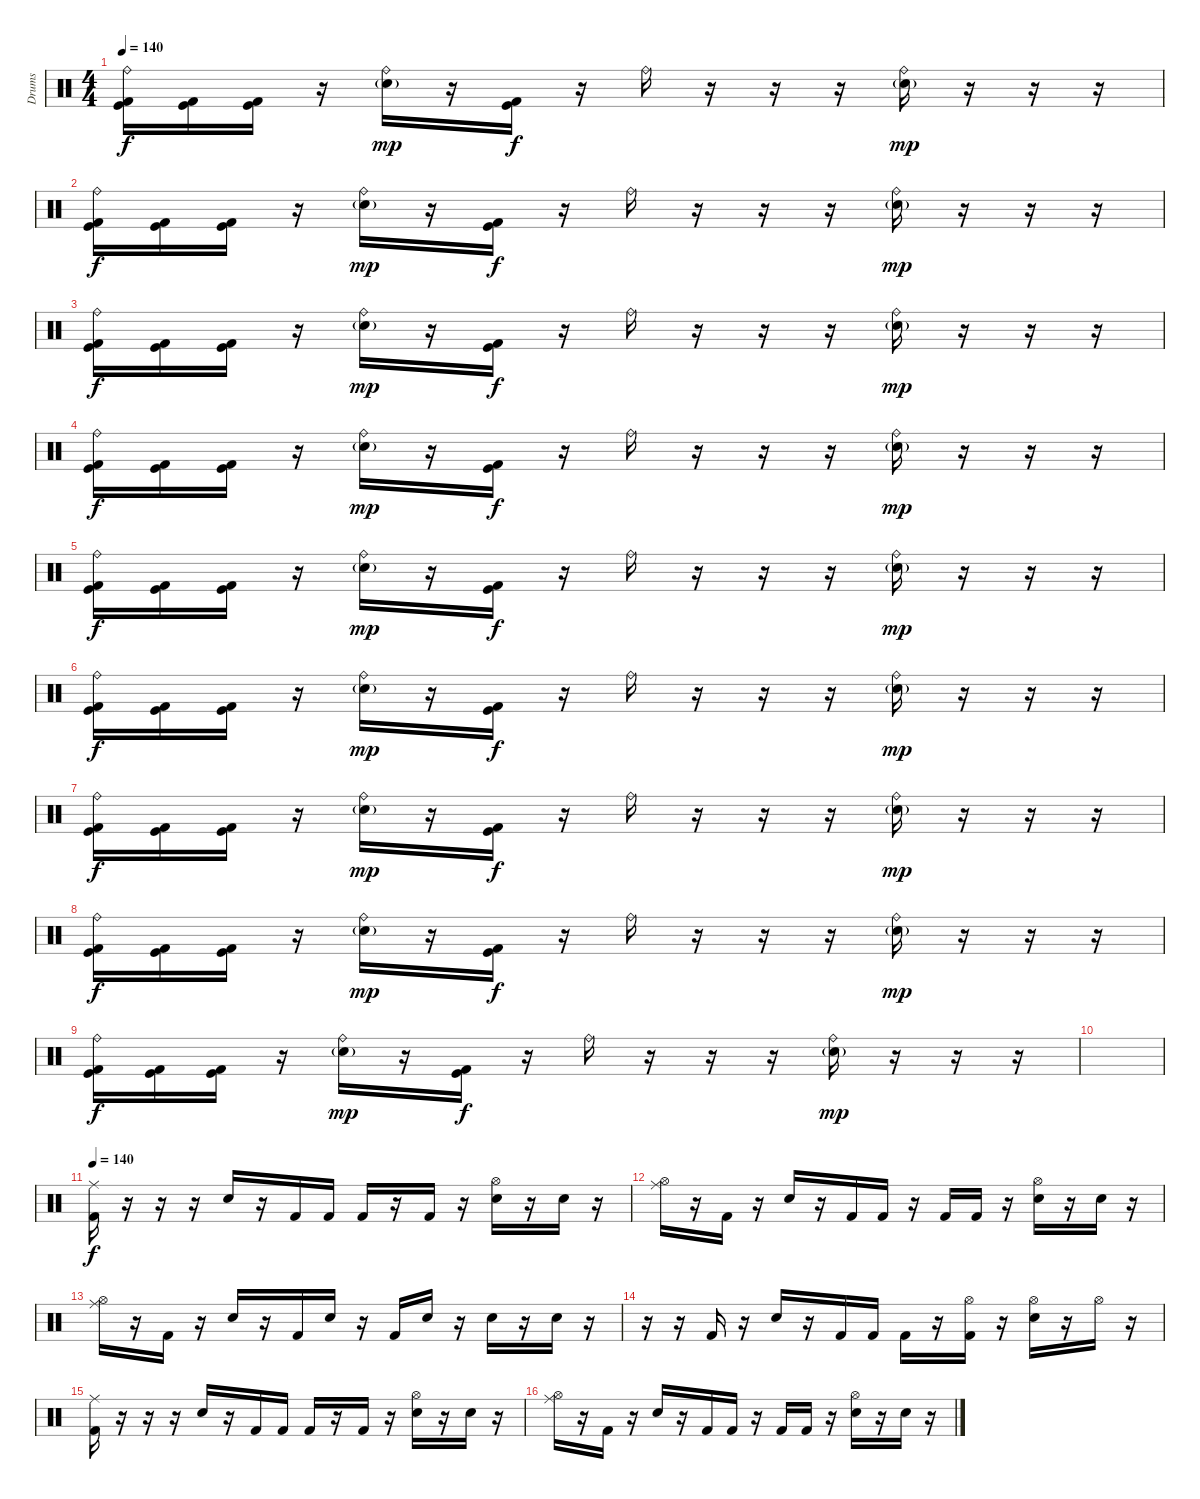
\track ("Drums" "Drums") {instrument percussion}
\staff {score}
\articulation defaults
\ts (4 4)
\tempo 140
\clef neutral
\ks c
("Ride (bell)" "Kick (hit)" "Kick (hit) 2").16{dy f} ("Kick (hit)" "Kick (hit) 2").16 ("Kick (hit)" "Kick (hit) 2").16 r.16 ("Ride (bell)" "Electric Snare (hit)"{g}).16{dy mp} r.16 ("Kick (hit)" "Kick (hit) 2").16{dy f} r.16 "Ride (bell)".16 r.16 r.16 r.16 ("Ride (bell)" "Electric Snare (hit)"{g}).16{dy mp} r.16 r.16 r.16 |
("Ride (bell)" "Kick (hit)" "Kick (hit) 2").16{dy f} ("Kick (hit)" "Kick (hit) 2").16 ("Kick (hit)" "Kick (hit) 2").16 r.16 ("Ride (bell)" "Electric Snare (hit)"{g}).16{dy mp} r.16 ("Kick (hit)" "Kick (hit) 2").16{dy f} r.16 "Ride (bell)".16 r.16 r.16 r.16 ("Ride (bell)" "Electric Snare (hit)"{g}).16{dy mp} r.16 r.16 r.16 |
("Ride (bell)" "Kick (hit)" "Kick (hit) 2").16{dy f} ("Kick (hit)" "Kick (hit) 2").16 ("Kick (hit)" "Kick (hit) 2").16 r.16 ("Ride (bell)" "Electric Snare (hit)"{g}).16{dy mp} r.16 ("Kick (hit)" "Kick (hit) 2").16{dy f} r.16 "Ride (bell)".16 r.16 r.16 r.16 ("Ride (bell)" "Electric Snare (hit)"{g}).16{dy mp} r.16 r.16 r.16 |
("Ride (bell)" "Kick (hit)" "Kick (hit) 2").16{dy f} ("Kick (hit)" "Kick (hit) 2").16 ("Kick (hit)" "Kick (hit) 2").16 r.16 ("Ride (bell)" "Electric Snare (hit)"{g}).16{dy mp} r.16 ("Kick (hit)" "Kick (hit) 2").16{dy f} r.16 "Ride (bell)".16 r.16 r.16 r.16 ("Ride (bell)" "Electric Snare (hit)"{g}).16{dy mp} r.16 r.16 r.16 |
("Ride (bell)" "Kick (hit)" "Kick (hit) 2").16{dy f} ("Kick (hit)" "Kick (hit) 2").16 ("Kick (hit)" "Kick (hit) 2").16 r.16 ("Ride (bell)" "Electric Snare (hit)"{g}).16{dy mp} r.16 ("Kick (hit)" "Kick (hit) 2").16{dy f} r.16 "Ride (bell)".16 r.16 r.16 r.16 ("Ride (bell)" "Electric Snare (hit)"{g}).16{dy mp} r.16 r.16 r.16 |
("Ride (bell)" "Kick (hit)" "Kick (hit) 2").16{dy f} ("Kick (hit)" "Kick (hit) 2").16 ("Kick (hit)" "Kick (hit) 2").16 r.16 ("Ride (bell)" "Electric Snare (hit)"{g}).16{dy mp} r.16 ("Kick (hit)" "Kick (hit) 2").16{dy f} r.16 "Ride (bell)".16 r.16 r.16 r.16 ("Ride (bell)" "Electric Snare (hit)"{g}).16{dy mp} r.16 r.16 r.16 |
("Ride (bell)" "Kick (hit)" "Kick (hit) 2").16{dy f} ("Kick (hit)" "Kick (hit) 2").16 ("Kick (hit)" "Kick (hit) 2").16 r.16 ("Ride (bell)" "Electric Snare (hit)"{g}).16{dy mp} r.16 ("Kick (hit)" "Kick (hit) 2").16{dy f} r.16 "Ride (bell)".16 r.16 r.16 r.16 ("Ride (bell)" "Electric Snare (hit)"{g}).16{dy mp} r.16 r.16 r.16 |
("Ride (bell)" "Kick (hit)" "Kick (hit) 2").16{dy f} ("Kick (hit)" "Kick (hit) 2").16 ("Kick (hit)" "Kick (hit) 2").16 r.16 ("Ride (bell)" "Electric Snare (hit)"{g}).16{dy mp} r.16 ("Kick (hit)" "Kick (hit) 2").16{dy f} r.16 "Ride (bell)".16 r.16 r.16 r.16 ("Ride (bell)" "Electric Snare (hit)"{g}).16{dy mp} r.16 r.16 r.16 |
("Ride (bell)" "Kick (hit)" "Kick (hit) 2").16{dy f} ("Kick (hit)" "Kick (hit) 2").16 ("Kick (hit)" "Kick (hit) 2").16 r.16 ("Ride (bell)" "Electric Snare (hit)"{g}).16{dy mp} r.16 ("Kick (hit)" "Kick (hit) 2").16{dy f} r.16 "Ride (bell)".16 r.16 r.16 r.16 ("Ride (bell)" "Electric Snare (hit)"{g}).16{dy mp} r.16 r.16 r.16 |
|
\tempo 140
("Ride (middle)" "Kick (hit) 2").16{dy f} r.16 r.16 r.16 "Electric Snare (hit)".16 r.16 "Kick (hit) 2".16 "Kick (hit) 2".16 "Kick (hit) 2".16 r.16 "Kick (hit) 2".16 r.16 ("Hi-Hat (open)" "Electric Snare (hit)").16 r.16 "Electric Snare (hit)".16 r.16 |
("Ride (middle)" "Hi-Hat (open)").16 r.16 "Kick (hit) 2".16 r.16 "Electric Snare (hit)".16 r.16 "Kick (hit) 2".16 "Kick (hit) 2".16 r.16 "Kick (hit) 2".16 "Kick (hit) 2".16 r.16 ("Hi-Hat (open)" "Electric Snare (hit)").16 r.16 "Electric Snare (hit)".16 r.16 |
("Ride (middle)" "Hi-Hat (open)").16 r.16 "Kick (hit) 2".16 r.16 "Electric Snare (hit)".16 r.16 "Kick (hit) 2".16 "Electric Snare (hit)".16 r.16 "Kick (hit) 2".16 "Electric Snare (hit)".16 r.16 "Electric Snare (hit)".16 r.16 "Electric Snare (hit)".16 r.16 |
r.16 r.16 "Kick (hit) 2".16 r.16 "Electric Snare (hit)".16 r.16 "Kick (hit) 2".16 "Kick (hit) 2".16 "Kick (hit) 2".16 r.16 ("Hi-Hat (open)" "Kick (hit) 2").16 r.16 ("Hi-Hat (open)" "Electric Snare (hit)").16 r.16 "Hi-Hat (open)".16 r.16 |
("Ride (middle)" "Kick (hit) 2").16 r.16 r.16 r.16 "Electric Snare (hit)".16 r.16 "Kick (hit) 2".16 "Kick (hit) 2".16 "Kick (hit) 2".16 r.16 "Kick (hit) 2".16 r.16 ("Hi-Hat (open)" "Electric Snare (hit)").16 r.16 "Electric Snare (hit)".16 r.16 |
("Ride (middle)" "Hi-Hat (open)").16 r.16 "Kick (hit) 2".16 r.16 "Electric Snare (hit)".16 r.16 "Kick (hit) 2".16 "Kick (hit) 2".16 r.16 "Kick (hit) 2".16 "Kick (hit) 2".16 r.16 ("Hi-Hat (open)" "Electric Snare (hit)").16 r.16 "Electric Snare (hit)".16 r.16
